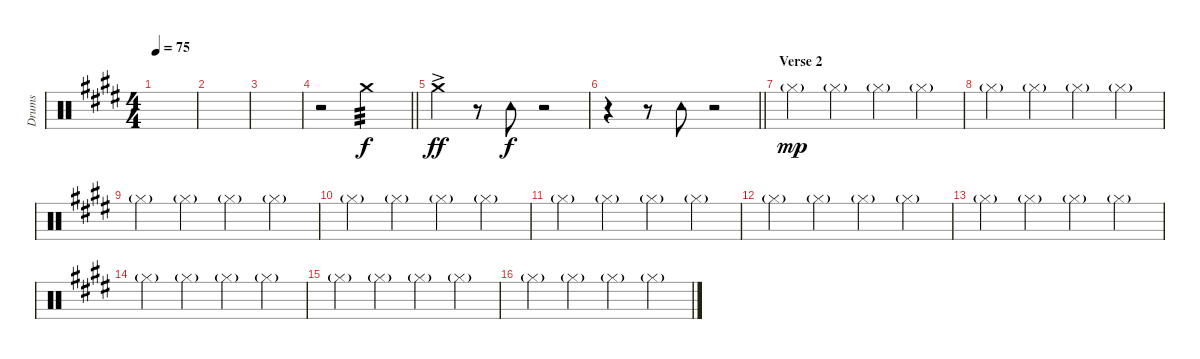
\track ("Drums" "Drums") {instrument percussion}
\staff {score}
\articulation defaults
\ts (4 4)
\tempo 75
\clef neutral
\ks e
|
|
|
\barLineRight lightlight
r.2{volume 0} "Crash medium (hit)".2{tp 3 volume 11} |
"Crash medium (hit)"{ac}.4{dy ff} r.8 "Tambourine (hit)".8{dy f} r.2 |
\barLineRight lightlight
r.4 r.8 "Tambourine (hit)".8 r.2 |
\section ("" "Verse 2")
"Hi-Hat (closed)"{g}.4{dy mp} "Hi-Hat (closed)"{g}.4 "Hi-Hat (closed)"{g}.4 "Hi-Hat (closed)"{g}.4 |
"Hi-Hat (closed)"{g}.4 "Hi-Hat (closed)"{g}.4 "Hi-Hat (closed)"{g}.4 "Hi-Hat (closed)"{g}.4 |
"Hi-Hat (closed)"{g}.4 "Hi-Hat (closed)"{g}.4 "Hi-Hat (closed)"{g}.4 "Hi-Hat (closed)"{g}.4 |
"Hi-Hat (closed)"{g}.4 "Hi-Hat (closed)"{g}.4 "Hi-Hat (closed)"{g}.4 "Hi-Hat (closed)"{g}.4 |
"Hi-Hat (closed)"{g}.4 "Hi-Hat (closed)"{g}.4 "Hi-Hat (closed)"{g}.4 "Hi-Hat (closed)"{g}.4 |
"Hi-Hat (closed)"{g}.4 "Hi-Hat (closed)"{g}.4 "Hi-Hat (closed)"{g}.4 "Hi-Hat (closed)"{g}.4 |
"Hi-Hat (closed)"{g}.4 "Hi-Hat (closed)"{g}.4 "Hi-Hat (closed)"{g}.4 "Hi-Hat (closed)"{g}.4 |
"Hi-Hat (closed)"{g}.4 "Hi-Hat (closed)"{g}.4 "Hi-Hat (closed)"{g}.4 "Hi-Hat (closed)"{g}.4 |
"Hi-Hat (closed)"{g}.4 "Hi-Hat (closed)"{g}.4 "Hi-Hat (closed)"{g}.4 "Hi-Hat (closed)"{g}.4 |
"Hi-Hat (closed)"{g}.4 "Hi-Hat (closed)"{g}.4 "Hi-Hat (closed)"{g}.4 "Hi-Hat (closed)"{g}.4
